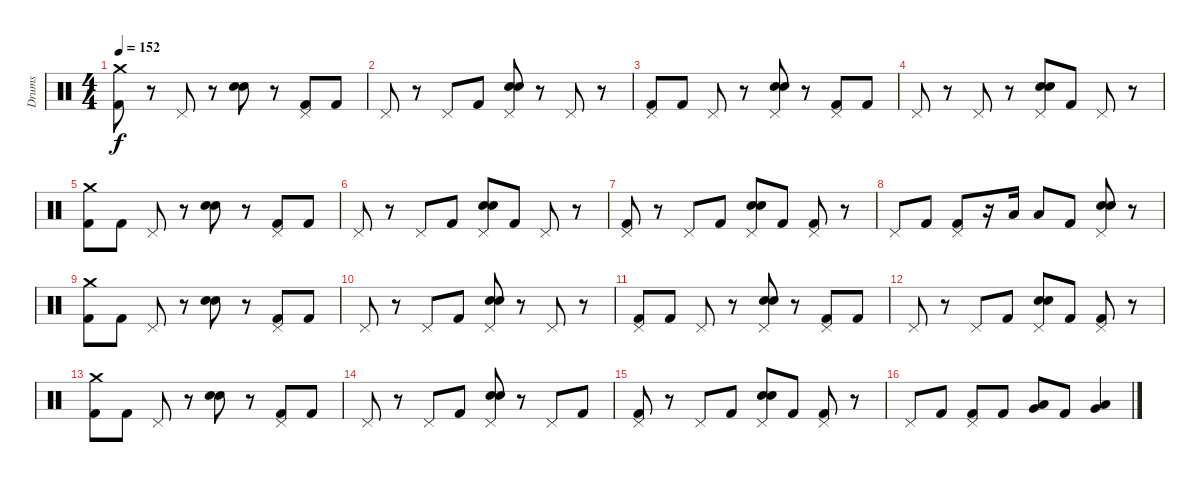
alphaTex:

\track ("Drums" "Drums") {instrument percussion}
\staff {score}
\articulation defaults
\ts (4 4)
\tempo 152
\clef neutral
\ks c
("Crash medium (hit)" "Kick (hit) 2").8{dy f} r.8 "Pedal Hi-Hat (hit)".8 r.8 ("Electric Snare (hit)" "Snare (hit) 2").8 r.8 ("Pedal Hi-Hat (hit)" "Kick (hit) 2").8 "Kick (hit) 2".8 |
"Pedal Hi-Hat (hit)".8 r.8 "Pedal Hi-Hat (hit)".8 "Kick (hit) 2".8 ("Pedal Hi-Hat (hit)" "Electric Snare (hit)" "Snare (hit) 2").8 r.8 "Pedal Hi-Hat (hit)".8 r.8 |
("Pedal Hi-Hat (hit)" "Kick (hit) 2").8 "Kick (hit) 2".8 "Pedal Hi-Hat (hit)".8 r.8 ("Pedal Hi-Hat (hit)" "Electric Snare (hit)" "Snare (hit) 2").8 r.8 ("Pedal Hi-Hat (hit)" "Kick (hit) 2").8 "Kick (hit) 2".8 |
"Pedal Hi-Hat (hit)".8 r.8 "Pedal Hi-Hat (hit)".8 r.8 ("Pedal Hi-Hat (hit)" "Electric Snare (hit)" "Snare (hit) 2").8 "Kick (hit) 2".8 "Pedal Hi-Hat (hit)".8 r.8 |
("Crash medium (hit)" "Kick (hit) 2").8 "Kick (hit) 2".8 "Pedal Hi-Hat (hit)".8 r.8 ("Electric Snare (hit)" "Snare (hit) 2").8 r.8 ("Pedal Hi-Hat (hit)" "Kick (hit) 2").8 "Kick (hit) 2".8 |
"Pedal Hi-Hat (hit)".8 r.8 "Pedal Hi-Hat (hit)".8 "Kick (hit) 2".8 ("Pedal Hi-Hat (hit)" "Electric Snare (hit)" "Snare (hit) 2").8 "Kick (hit) 2".8 "Pedal Hi-Hat (hit)".8 r.8 |
("Pedal Hi-Hat (hit)" "Kick (hit) 2").8 r.8 "Pedal Hi-Hat (hit)".8 "Kick (hit) 2".8 ("Pedal Hi-Hat (hit)" "Electric Snare (hit)" "Snare (hit) 2").8 "Kick (hit) 2".8 ("Pedal Hi-Hat (hit)" "Kick (hit) 2").8 r.8 |
"Pedal Hi-Hat (hit)".8 "Kick (hit) 2".8 ("Pedal Hi-Hat (hit)" "Kick (hit) 2").8 r.16 "Low Tom (hit)".16 "Low Tom (hit)".8 "Kick (hit) 2".8 ("Pedal Hi-Hat (hit)" "Electric Snare (hit)" "Snare (hit) 2").8 r.8 |
("Crash medium (hit)" "Kick (hit) 2").8 "Kick (hit) 2".8 "Pedal Hi-Hat (hit)".8 r.8 ("Electric Snare (hit)" "Snare (hit) 2").8 r.8 ("Pedal Hi-Hat (hit)" "Kick (hit) 2").8 "Kick (hit) 2".8 |
"Pedal Hi-Hat (hit)".8 r.8 "Pedal Hi-Hat (hit)".8 "Kick (hit) 2".8 ("Pedal Hi-Hat (hit)" "Electric Snare (hit)" "Snare (hit) 2").8 r.8 "Pedal Hi-Hat (hit)".8 r.8 |
("Pedal Hi-Hat (hit)" "Kick (hit) 2").8 "Kick (hit) 2".8 "Pedal Hi-Hat (hit)".8 r.8 ("Pedal Hi-Hat (hit)" "Electric Snare (hit)" "Snare (hit) 2").8 r.8 ("Pedal Hi-Hat (hit)" "Kick (hit) 2").8 "Kick (hit) 2".8 |
"Pedal Hi-Hat (hit)".8 r.8 "Pedal Hi-Hat (hit)".8 "Kick (hit) 2".8 ("Pedal Hi-Hat (hit)" "Electric Snare (hit)" "Snare (hit) 2").8 "Kick (hit) 2".8 ("Pedal Hi-Hat (hit)" "Kick (hit) 2").8 r.8 |
("Crash medium (hit)" "Kick (hit) 2").8 "Kick (hit) 2".8 "Pedal Hi-Hat (hit)".8 r.8 ("Electric Snare (hit)" "Snare (hit) 2").8 r.8 ("Pedal Hi-Hat (hit)" "Kick (hit) 2").8 "Kick (hit) 2".8 |
"Pedal Hi-Hat (hit)".8 r.8 "Pedal Hi-Hat (hit)".8 "Kick (hit) 2".8 ("Pedal Hi-Hat (hit)" "Electric Snare (hit)" "Snare (hit) 2").8 r.8 "Pedal Hi-Hat (hit)".8 "Kick (hit) 2".8 |
("Pedal Hi-Hat (hit)" "Kick (hit) 2").8 r.8 "Pedal Hi-Hat (hit)".8 "Kick (hit) 2".8 ("Pedal Hi-Hat (hit)" "Electric Snare (hit)" "Snare (hit) 2").8 "Kick (hit) 2".8 ("Pedal Hi-Hat (hit)" "Kick (hit) 2").8 r.8 |
"Pedal Hi-Hat (hit)".8 "Kick (hit) 2".8 ("Pedal Hi-Hat (hit)" "Kick (hit) 2").8 "Kick (hit) 2".8 ("Low Tom (hit)" "Very Low Tom (hit)").8 "Kick (hit) 2".8 ("Low Tom (hit)" "Very Low Tom (hit)").4
